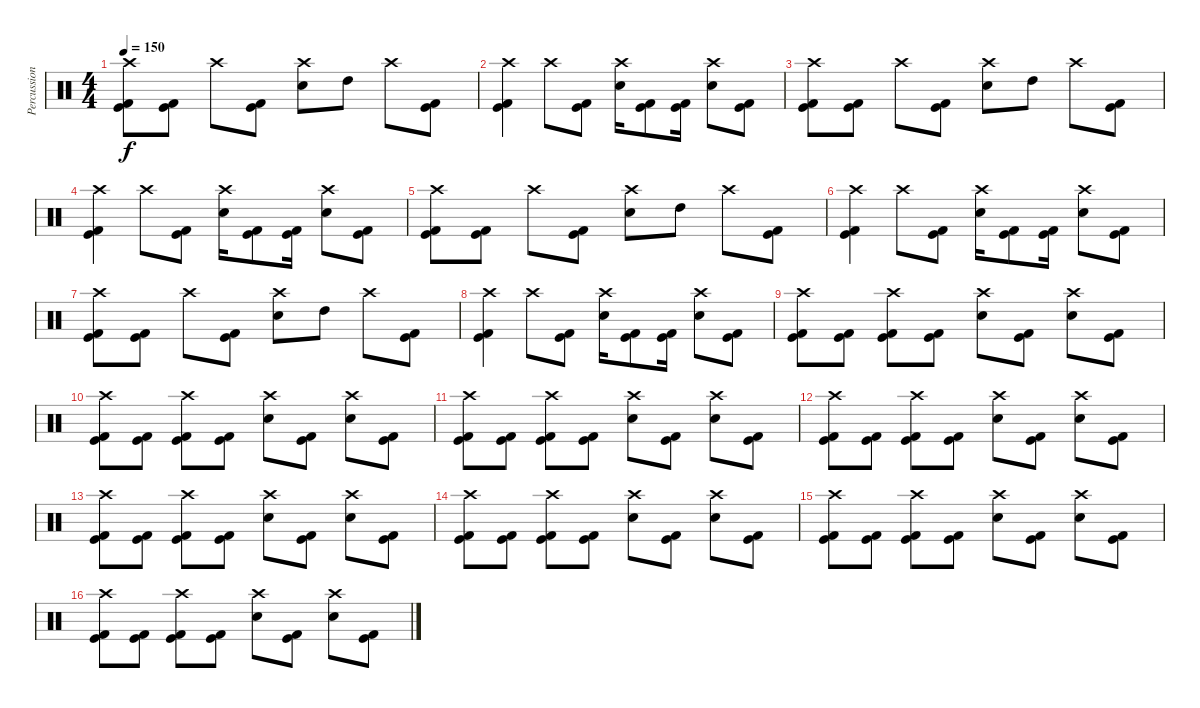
\track ("Percussion" "Percussion") {instrument percussion}
\staff {score}
\articulation defaults
\ts (4 4)
\tempo 150
\clef neutral
\ks c
("Crash high (hit)" "Kick (hit)" "Kick (hit) 2").8{dy f} ("Kick (hit)" "Kick (hit) 2").8 "Crash high (hit)".8 ("Kick (hit)" "Kick (hit) 2").8 ("Crash high (hit)" "Electric Snare (hit)").8 "High Tom (hit)".8 "Crash high (hit)".8 ("Kick (hit)" "Kick (hit) 2").8 |
("Crash high (hit)" "Kick (hit)" "Kick (hit) 2").4 "Crash high (hit)".8 ("Kick (hit)" "Kick (hit) 2").8 ("Crash high (hit)" "Electric Snare (hit)").16 ("Kick (hit)" "Kick (hit) 2").8 ("Kick (hit)" "Kick (hit) 2").16 ("Crash high (hit)" "Electric Snare (hit)").8 ("Kick (hit)" "Kick (hit) 2").8 |
("Crash high (hit)" "Kick (hit)" "Kick (hit) 2").8 ("Kick (hit)" "Kick (hit) 2").8 "Crash high (hit)".8 ("Kick (hit)" "Kick (hit) 2").8 ("Crash high (hit)" "Electric Snare (hit)").8 "High Tom (hit)".8 "Crash high (hit)".8 ("Kick (hit)" "Kick (hit) 2").8 |
("Crash high (hit)" "Kick (hit)" "Kick (hit) 2").4 "Crash high (hit)".8 ("Kick (hit)" "Kick (hit) 2").8 ("Crash high (hit)" "Electric Snare (hit)").16 ("Kick (hit)" "Kick (hit) 2").8 ("Kick (hit)" "Kick (hit) 2").16 ("Crash high (hit)" "Electric Snare (hit)").8 ("Kick (hit)" "Kick (hit) 2").8 |
("Crash high (hit)" "Kick (hit)" "Kick (hit) 2").8 ("Kick (hit)" "Kick (hit) 2").8 "Crash high (hit)".8 ("Kick (hit)" "Kick (hit) 2").8 ("Crash high (hit)" "Electric Snare (hit)").8 "High Tom (hit)".8 "Crash high (hit)".8 ("Kick (hit)" "Kick (hit) 2").8 |
("Crash high (hit)" "Kick (hit)" "Kick (hit) 2").4 "Crash high (hit)".8 ("Kick (hit)" "Kick (hit) 2").8 ("Crash high (hit)" "Electric Snare (hit)").16 ("Kick (hit)" "Kick (hit) 2").8 ("Kick (hit)" "Kick (hit) 2").16 ("Crash high (hit)" "Electric Snare (hit)").8 ("Kick (hit)" "Kick (hit) 2").8 |
("Crash high (hit)" "Kick (hit)" "Kick (hit) 2").8 ("Kick (hit)" "Kick (hit) 2").8 "Crash high (hit)".8 ("Kick (hit)" "Kick (hit) 2").8 ("Crash high (hit)" "Electric Snare (hit)").8 "High Tom (hit)".8 "Crash high (hit)".8 ("Kick (hit)" "Kick (hit) 2").8 |
("Crash high (hit)" "Kick (hit)" "Kick (hit) 2").4 "Crash high (hit)".8 ("Kick (hit)" "Kick (hit) 2").8 ("Crash high (hit)" "Electric Snare (hit)").16 ("Kick (hit)" "Kick (hit) 2").8 ("Kick (hit)" "Kick (hit) 2").16 ("Crash high (hit)" "Electric Snare (hit)").8 ("Kick (hit)" "Kick (hit) 2").8 |
("Crash high (hit)" "Kick (hit)" "Kick (hit) 2").8 ("Kick (hit)" "Kick (hit) 2").8 ("Crash high (hit)" "Kick (hit)" "Kick (hit) 2").8 ("Kick (hit)" "Kick (hit) 2").8 ("Crash high (hit)" "Electric Snare (hit)").8 ("Kick (hit)" "Kick (hit) 2").8 ("Crash high (hit)" "Electric Snare (hit)").8 ("Kick (hit)" "Kick (hit) 2").8 |
("Crash high (hit)" "Kick (hit)" "Kick (hit) 2").8 ("Kick (hit)" "Kick (hit) 2").8 ("Crash high (hit)" "Kick (hit)" "Kick (hit) 2").8 ("Kick (hit)" "Kick (hit) 2").8 ("Crash high (hit)" "Electric Snare (hit)").8 ("Kick (hit)" "Kick (hit) 2").8 ("Crash high (hit)" "Electric Snare (hit)").8 ("Kick (hit)" "Kick (hit) 2").8 |
("Crash high (hit)" "Kick (hit)" "Kick (hit) 2").8 ("Kick (hit)" "Kick (hit) 2").8 ("Crash high (hit)" "Kick (hit)" "Kick (hit) 2").8 ("Kick (hit)" "Kick (hit) 2").8 ("Crash high (hit)" "Electric Snare (hit)").8 ("Kick (hit)" "Kick (hit) 2").8 ("Crash high (hit)" "Electric Snare (hit)").8 ("Kick (hit)" "Kick (hit) 2").8 |
("Crash high (hit)" "Kick (hit)" "Kick (hit) 2").8 ("Kick (hit)" "Kick (hit) 2").8 ("Crash high (hit)" "Kick (hit)" "Kick (hit) 2").8 ("Kick (hit)" "Kick (hit) 2").8 ("Crash high (hit)" "Electric Snare (hit)").8 ("Kick (hit)" "Kick (hit) 2").8 ("Crash high (hit)" "Electric Snare (hit)").8 ("Kick (hit)" "Kick (hit) 2").8 |
("Crash high (hit)" "Kick (hit)" "Kick (hit) 2").8 ("Kick (hit)" "Kick (hit) 2").8 ("Crash high (hit)" "Kick (hit)" "Kick (hit) 2").8 ("Kick (hit)" "Kick (hit) 2").8 ("Crash high (hit)" "Electric Snare (hit)").8 ("Kick (hit)" "Kick (hit) 2").8 ("Crash high (hit)" "Electric Snare (hit)").8 ("Kick (hit)" "Kick (hit) 2").8 |
("Crash high (hit)" "Kick (hit)" "Kick (hit) 2").8 ("Kick (hit)" "Kick (hit) 2").8 ("Crash high (hit)" "Kick (hit)" "Kick (hit) 2").8 ("Kick (hit)" "Kick (hit) 2").8 ("Crash high (hit)" "Electric Snare (hit)").8 ("Kick (hit)" "Kick (hit) 2").8 ("Crash high (hit)" "Electric Snare (hit)").8 ("Kick (hit)" "Kick (hit) 2").8 |
("Crash high (hit)" "Kick (hit)" "Kick (hit) 2").8 ("Kick (hit)" "Kick (hit) 2").8 ("Crash high (hit)" "Kick (hit)" "Kick (hit) 2").8 ("Kick (hit)" "Kick (hit) 2").8 ("Crash high (hit)" "Electric Snare (hit)").8 ("Kick (hit)" "Kick (hit) 2").8 ("Crash high (hit)" "Electric Snare (hit)").8 ("Kick (hit)" "Kick (hit) 2").8 |
("Crash high (hit)" "Kick (hit)" "Kick (hit) 2").8 ("Kick (hit)" "Kick (hit) 2").8 ("Crash high (hit)" "Kick (hit)" "Kick (hit) 2").8 ("Kick (hit)" "Kick (hit) 2").8 ("Crash high (hit)" "Electric Snare (hit)").8 ("Kick (hit)" "Kick (hit) 2").8 ("Crash high (hit)" "Electric Snare (hit)").8 ("Kick (hit)" "Kick (hit) 2").8
